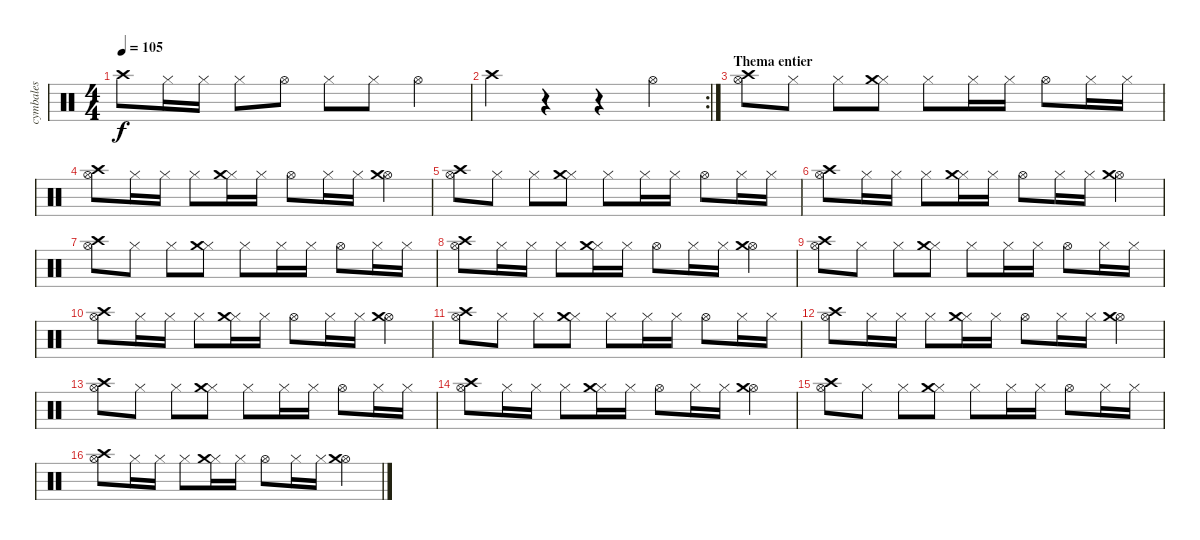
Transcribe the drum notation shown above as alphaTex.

\track ("cymbales" "cymbales") {instrument percussion}
\staff {score}
\articulation defaults
\ts (4 4)
\tempo 105
\clef neutral
\ks c "Crash high (hit)".8{dy f} "Hi-Hat (closed)".16 "Hi-Hat (closed)".16 "Hi-Hat (closed)".8 "Hi-Hat (open)".8 "Hi-Hat (closed)".8 "Hi-Hat (closed)".8 "Hi-Hat (open)".4
|
\rc 2 "Crash high (hit)".4
r.4 r.4 "Hi-Hat (open)".4 |
\section ("" "Thema entier")
("Hi-Hat (open)" "Crash high (hit)").8 "Hi-Hat (closed)".8 "Hi-Hat (closed)".8 ("Hi-Hat (closed)" "Crash medium (hit)").8 "Hi-Hat (closed)".8 "Hi-Hat (closed)".16 "Hi-Hat (closed)".16 "Hi-Hat (open)".8 "Hi-Hat (closed)".16 "Hi-Hat (closed)".16 |
("Hi-Hat (open)" "Crash high (hit)").8 "Hi-Hat (closed)".16 "Hi-Hat (closed)".16 "Hi-Hat (closed)".8 ("Hi-Hat (closed)" "Crash medium (hit)").16 "Hi-Hat (closed)".16 "Hi-Hat (open)".8 "Hi-Hat (closed)".16 "Hi-Hat (closed)".16 ("Hi-Hat (open)" "Crash medium (hit)").4 |
("Hi-Hat (open)" "Crash high (hit)").8 "Hi-Hat (closed)".8 "Hi-Hat (closed)".8 ("Hi-Hat (closed)" "Crash medium (hit)").8 "Hi-Hat (closed)".8 "Hi-Hat (closed)".16 "Hi-Hat (closed)".16 "Hi-Hat (open)".8 "Hi-Hat (closed)".16 "Hi-Hat (closed)".16 |
("Hi-Hat (open)" "Crash high (hit)").8 "Hi-Hat (closed)".16 "Hi-Hat (closed)".16 "Hi-Hat (closed)".8 ("Hi-Hat (closed)" "Crash medium (hit)").16 "Hi-Hat (closed)".16 "Hi-Hat (open)".8 "Hi-Hat (closed)".16 "Hi-Hat (closed)".16 ("Hi-Hat (open)" "Crash medium (hit)").4 |
("Hi-Hat (open)" "Crash high (hit)").8 "Hi-Hat (closed)".8 "Hi-Hat (closed)".8 ("Hi-Hat (closed)" "Crash medium (hit)").8 "Hi-Hat (closed)".8 "Hi-Hat (closed)".16 "Hi-Hat (closed)".16 "Hi-Hat (open)".8 "Hi-Hat (closed)".16 "Hi-Hat (closed)".16 |
("Hi-Hat (open)" "Crash high (hit)").8 "Hi-Hat (closed)".16 "Hi-Hat (closed)".16 "Hi-Hat (closed)".8 ("Hi-Hat (closed)" "Crash medium (hit)").16 "Hi-Hat (closed)".16 "Hi-Hat (open)".8 "Hi-Hat (closed)".16 "Hi-Hat (closed)".16 ("Hi-Hat (open)" "Crash medium (hit)").4 |
("Hi-Hat (open)" "Crash high (hit)").8 "Hi-Hat (closed)".8 "Hi-Hat (closed)".8 ("Hi-Hat (closed)" "Crash medium (hit)").8 "Hi-Hat (closed)".8 "Hi-Hat (closed)".16 "Hi-Hat (closed)".16 "Hi-Hat (open)".8 "Hi-Hat (closed)".16 "Hi-Hat (closed)".16 |
("Hi-Hat (open)" "Crash high (hit)").8 "Hi-Hat (closed)".16 "Hi-Hat (closed)".16 "Hi-Hat (closed)".8 ("Hi-Hat (closed)" "Crash medium (hit)").16 "Hi-Hat (closed)".16 "Hi-Hat (open)".8 "Hi-Hat (closed)".16 "Hi-Hat (closed)".16 ("Hi-Hat (open)" "Crash medium (hit)").4 |
("Hi-Hat (open)" "Crash high (hit)").8 "Hi-Hat (closed)".8 "Hi-Hat (closed)".8 ("Hi-Hat (closed)" "Crash medium (hit)").8 "Hi-Hat (closed)".8 "Hi-Hat (closed)".16 "Hi-Hat (closed)".16 "Hi-Hat (open)".8 "Hi-Hat (closed)".16 "Hi-Hat (closed)".16 |
("Hi-Hat (open)" "Crash high (hit)").8 "Hi-Hat (closed)".16 "Hi-Hat (closed)".16 "Hi-Hat (closed)".8 ("Hi-Hat (closed)" "Crash medium (hit)").16 "Hi-Hat (closed)".16 "Hi-Hat (open)".8 "Hi-Hat (closed)".16 "Hi-Hat (closed)".16 ("Hi-Hat (open)" "Crash medium (hit)").4 |
("Hi-Hat (open)" "Crash high (hit)").8 "Hi-Hat (closed)".8 "Hi-Hat (closed)".8 ("Hi-Hat (closed)" "Crash medium (hit)").8 "Hi-Hat (closed)".8 "Hi-Hat (closed)".16 "Hi-Hat (closed)".16 "Hi-Hat (open)".8 "Hi-Hat (closed)".16 "Hi-Hat (closed)".16 |
("Hi-Hat (open)" "Crash high (hit)").8 "Hi-Hat (closed)".16 "Hi-Hat (closed)".16 "Hi-Hat (closed)".8 ("Hi-Hat (closed)" "Crash medium (hit)").16 "Hi-Hat (closed)".16 "Hi-Hat (open)".8 "Hi-Hat (closed)".16 "Hi-Hat (closed)".16 ("Hi-Hat (open)" "Crash medium (hit)").4 |
("Hi-Hat (open)" "Crash high (hit)").8 "Hi-Hat (closed)".8 "Hi-Hat (closed)".8 ("Hi-Hat (closed)" "Crash medium (hit)").8 "Hi-Hat (closed)".8 "Hi-Hat (closed)".16 "Hi-Hat (closed)".16 "Hi-Hat (open)".8 "Hi-Hat (closed)".16 "Hi-Hat (closed)".16 |
("Hi-Hat (open)" "Crash high (hit)").8 "Hi-Hat (closed)".16 "Hi-Hat (closed)".16 "Hi-Hat (closed)".8 ("Hi-Hat (closed)" "Crash medium (hit)").16 "Hi-Hat (closed)".16 "Hi-Hat (open)".8 "Hi-Hat (closed)".16 "Hi-Hat (closed)".16 ("Hi-Hat (open)" "Crash medium (hit)").4
